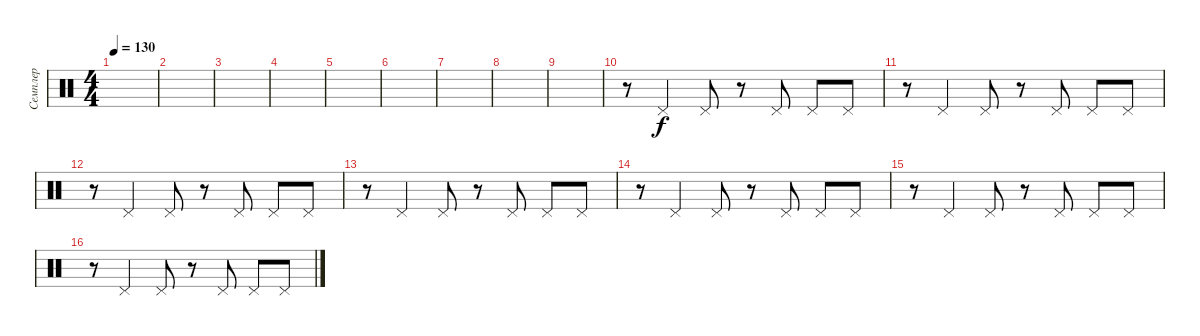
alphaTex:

\track ("Семплер" "Семплер") {instrument percussion}
\staff {score}
\articulation defaults
\ts (4 4)
\tempo 130
\clef neutral
\ks c
|
|
|
|
|
|
|
|
|
r.8 "Pedal Hi-Hat (hit)".4 "Pedal Hi-Hat (hit)".8 r.8 "Pedal Hi-Hat (hit)".8 "Pedal Hi-Hat (hit)".8 "Pedal Hi-Hat (hit)".8 |
r.8 "Pedal Hi-Hat (hit)".4 "Pedal Hi-Hat (hit)".8 r.8 "Pedal Hi-Hat (hit)".8 "Pedal Hi-Hat (hit)".8 "Pedal Hi-Hat (hit)".8 |
r.8 "Pedal Hi-Hat (hit)".4 "Pedal Hi-Hat (hit)".8 r.8 "Pedal Hi-Hat (hit)".8 "Pedal Hi-Hat (hit)".8 "Pedal Hi-Hat (hit)".8 |
r.8 "Pedal Hi-Hat (hit)".4 "Pedal Hi-Hat (hit)".8 r.8 "Pedal Hi-Hat (hit)".8 "Pedal Hi-Hat (hit)".8 "Pedal Hi-Hat (hit)".8 |
r.8 "Pedal Hi-Hat (hit)".4 "Pedal Hi-Hat (hit)".8 r.8 "Pedal Hi-Hat (hit)".8 "Pedal Hi-Hat (hit)".8 "Pedal Hi-Hat (hit)".8 |
r.8 "Pedal Hi-Hat (hit)".4 "Pedal Hi-Hat (hit)".8 r.8 "Pedal Hi-Hat (hit)".8 "Pedal Hi-Hat (hit)".8 "Pedal Hi-Hat (hit)".8 |
r.8 "Pedal Hi-Hat (hit)".4 "Pedal Hi-Hat (hit)".8 r.8 "Pedal Hi-Hat (hit)".8 "Pedal Hi-Hat (hit)".8 "Pedal Hi-Hat (hit)".8
